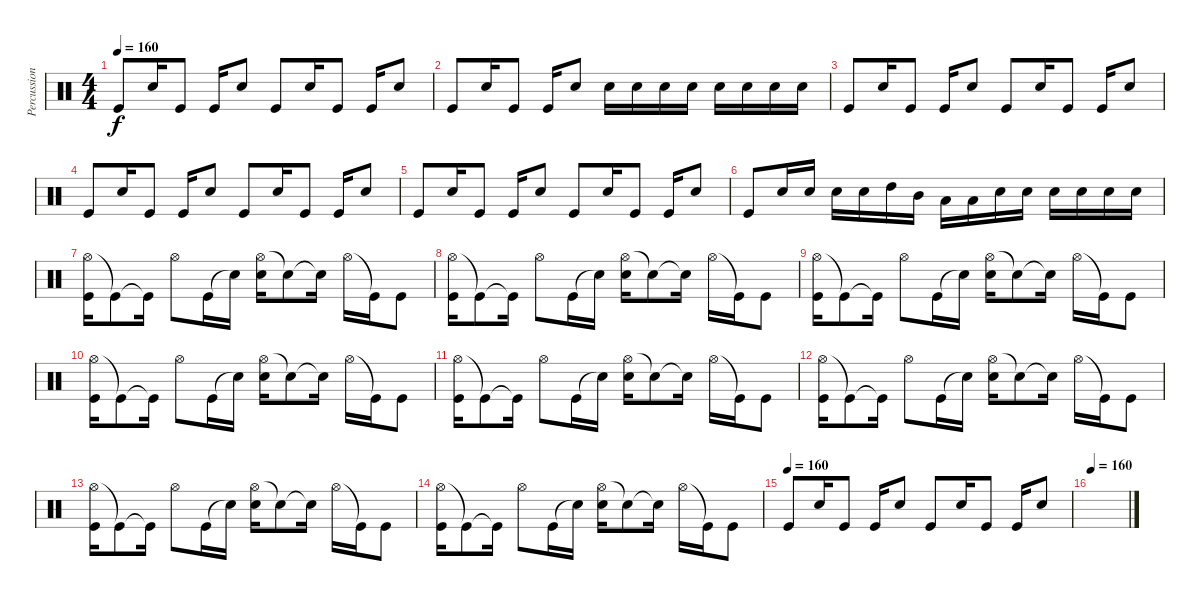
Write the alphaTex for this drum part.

\track ("Percussions" "Percussion") {instrument percussion}
\staff {score}
\articulation defaults
\ts (4 4)
\tempo 160
\clef neutral
\ks c "Kick (hit)".8{dy f} "Snare (hit) 2".16 "Kick (hit)".8 "Kick (hit)".16 "Snare (hit) 2".8 "Kick (hit)".8 "Snare (hit) 2".16 "Kick (hit)".8 "Kick (hit)".16 "Snare (hit) 2".8
|
"Kick (hit)".8 "Snare (hit) 2".16 "Kick (hit)".8 "Kick (hit)".16 "Snare (hit) 2".8 "Snare (hit) 2".16 "Snare (hit) 2".16 "Snare (hit) 2".16 "Snare (hit) 2".16 "Snare (hit) 2".16 "Snare (hit) 2".16 "Snare (hit) 2".16 "Snare (hit) 2".16 |
"Kick (hit)".8 "Snare (hit) 2".16 "Kick (hit)".8 "Kick (hit)".16 "Snare (hit) 2".8 "Kick (hit)".8 "Snare (hit) 2".16 "Kick (hit)".8 "Kick (hit)".16 "Snare (hit) 2".8 |
"Kick (hit)".8 "Snare (hit) 2".16 "Kick (hit)".8 "Kick (hit)".16 "Snare (hit) 2".8 "Kick (hit)".8 "Snare (hit) 2".16 "Kick (hit)".8 "Kick (hit)".16 "Snare (hit) 2".8 |
"Kick (hit)".8 "Snare (hit) 2".16 "Kick (hit)".8 "Kick (hit)".16 "Snare (hit) 2".8 "Kick (hit)".8 "Snare (hit) 2".16 "Kick (hit)".8 "Kick (hit)".16 "Snare (hit) 2".8 |
"Kick (hit)".8 "Snare (hit) 2".16 "Snare (hit) 2".16 "Snare (hit) 2".16 "Snare (hit) 2".16 "High Tom (hit)".16 "Mid Tom (hit)".16 "Low Tom (hit)".16 "Low Tom (hit)".16 "Snare (hit) 2".16 "Snare (hit) 2".16 "Snare (hit) 2".16 "Snare (hit) 2".16 "Snare (hit) 2".16 "Snare (hit) 2".16 |
("Hi-Hat (open)" "Kick (hit)").16 "Kick (hit)"{t}.8 "Kick (hit)"{t}.16 "Hi-Hat (open)".8 "Kick (hit)".16 "Snare (hit) 2"{t}.16 ("Hi-Hat (open)" "Snare (hit) 2").16 "Snare (hit)"{t}.8 "Snare (hit)"{t}.16 "Hi-Hat (open)".16 "Kick (hit)"{t}.16 "Kick (hit)".8 |
("Hi-Hat (open)" "Kick (hit)").16 "Kick (hit)"{t}.8 "Kick (hit)"{t}.16 "Hi-Hat (open)".8 "Kick (hit)".16 "Snare (hit) 2"{t}.16 ("Hi-Hat (open)" "Snare (hit) 2").16 "Snare (hit)"{t}.8 "Snare (hit)"{t}.16 "Hi-Hat (open)".16 "Kick (hit)"{t}.16 "Kick (hit)".8 |
("Hi-Hat (open)" "Kick (hit)").16 "Kick (hit)"{t}.8 "Kick (hit)"{t}.16 "Hi-Hat (open)".8 "Kick (hit)".16 "Snare (hit) 2"{t}.16 ("Hi-Hat (open)" "Snare (hit) 2").16 "Snare (hit)"{t}.8 "Snare (hit)"{t}.16 "Hi-Hat (open)".16 "Kick (hit)"{t}.16 "Kick (hit)".8 |
("Hi-Hat (open)" "Kick (hit)").16 "Kick (hit)"{t}.8 "Kick (hit)"{t}.16 "Hi-Hat (open)".8 "Kick (hit)".16 "Snare (hit) 2"{t}.16 ("Hi-Hat (open)" "Snare (hit) 2").16 "Snare (hit)"{t}.8 "Snare (hit)"{t}.16 "Hi-Hat (open)".16 "Kick (hit)"{t}.16 "Kick (hit)".8 |
("Hi-Hat (open)" "Kick (hit)").16 "Kick (hit)"{t}.8 "Kick (hit)"{t}.16 "Hi-Hat (open)".8 "Kick (hit)".16 "Snare (hit) 2"{t}.16 ("Hi-Hat (open)" "Snare (hit) 2").16 "Snare (hit)"{t}.8 "Snare (hit)"{t}.16 "Hi-Hat (open)".16 "Kick (hit)"{t}.16 "Kick (hit)".8 |
("Hi-Hat (open)" "Kick (hit)").16 "Kick (hit)"{t}.8 "Kick (hit)"{t}.16 "Hi-Hat (open)".8 "Kick (hit)".16 "Snare (hit) 2"{t}.16 ("Hi-Hat (open)" "Snare (hit) 2").16 "Snare (hit)"{t}.8 "Snare (hit)"{t}.16 "Hi-Hat (open)".16 "Kick (hit)"{t}.16 "Kick (hit)".8 |
("Hi-Hat (open)" "Kick (hit)").16 "Kick (hit)"{t}.8 "Kick (hit)"{t}.16 "Hi-Hat (open)".8 "Kick (hit)".16 "Snare (hit) 2"{t}.16 ("Hi-Hat (open)" "Snare (hit) 2").16 "Snare (hit)"{t}.8 "Snare (hit)"{t}.16 "Hi-Hat (open)".16 "Kick (hit)"{t}.16 "Kick (hit)".8 |
("Hi-Hat (open)" "Kick (hit)").16 "Kick (hit)"{t}.8 "Kick (hit)"{t}.16 "Hi-Hat (open)".8 "Kick (hit)".16 "Snare (hit) 2"{t}.16 ("Hi-Hat (open)" "Snare (hit) 2").16 "Snare (hit)"{t}.8 "Snare (hit)"{t}.16 "Hi-Hat (open)".16 "Kick (hit)"{t}.16 "Kick (hit)".8 |
\tempo (160)
"Kick (hit)".8 "Snare (hit) 2".16 "Kick (hit)".8 "Kick (hit)".16 "Snare (hit) 2".8 "Kick (hit)".8 "Snare (hit) 2".16 "Kick (hit)".8 "Kick (hit)".16 "Snare (hit) 2".8 |
\tempo 160
